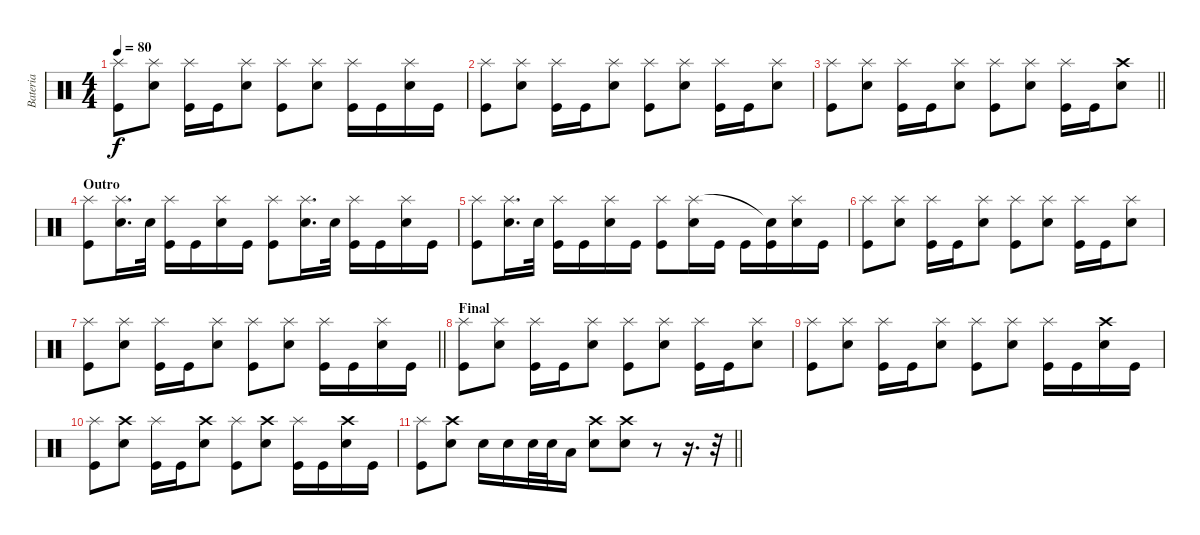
\track ("Bateria" "Bateria") {instrument percussion}
\staff {score}
\articulation defaults
\ts (4 4)
\tempo 80
\clef neutral
\ks c
("Kick (hit)" "Splash (hit)").8{dy f} ("Electric Snare (hit)" "Splash (hit)").8 ("Kick (hit)" "Splash (hit)").16 "Kick (hit)".16 ("Electric Snare (hit)" "Splash (hit)").8 ("Kick (hit)" "Splash (hit)").8 ("Electric Snare (hit)" "Splash (hit)").8 ("Kick (hit)" "Splash (hit)").16 "Kick (hit)".16 ("Electric Snare (hit)" "Splash (hit)").16 "Kick (hit)".16 |
("Kick (hit)" "Splash (hit)").8 ("Electric Snare (hit)" "Splash (hit)").8 ("Kick (hit)" "Splash (hit)").16 "Kick (hit)".16 ("Electric Snare (hit)" "Splash (hit)").8 ("Kick (hit)" "Splash (hit)").8 ("Electric Snare (hit)" "Splash (hit)").8 ("Kick (hit)" "Splash (hit)").16 "Kick (hit)".16 ("Electric Snare (hit)" "Splash (hit)").8 |
\barLineRight lightlight
("Kick (hit)" "Splash (hit)").8 ("Electric Snare (hit)" "Splash (hit)").8 ("Kick (hit)" "Splash (hit)").16 "Kick (hit)".16 ("Electric Snare (hit)" "Splash (hit)").8 ("Kick (hit)" "Splash (hit)").8 ("Electric Snare (hit)" "Splash (hit)").8 ("Kick (hit)" "Splash (hit)").16 "Kick (hit)".16 ("Electric Snare (hit)" "Crash high (hit)").8 |
\section ("" "Outro")
("Kick (hit)" "Splash (hit)").8 ("Electric Snare (hit)" "Splash (hit)").16{d} "Electric Snare (hit)".32 ("Kick (hit)" "Splash (hit)").16 "Kick (hit)".16 ("Electric Snare (hit)" "Splash (hit)").16 "Kick (hit)".16 ("Kick (hit)" "Splash (hit)").8 ("Electric Snare (hit)" "Splash (hit)").16{d} "Electric Snare (hit)".32 ("Kick (hit)" "Splash (hit)").16 "Kick (hit)".16 ("Electric Snare (hit)" "Splash (hit)").16 "Kick (hit)".16 |
("Kick (hit)" "Splash (hit)").8 ("Electric Snare (hit)" "Splash (hit)").16{d} "Electric Snare (hit)".32 ("Kick (hit)" "Splash (hit)").16 "Kick (hit)".16 ("Electric Snare (hit)" "Splash (hit)").16 "Kick (hit)".16 ("Kick (hit)" "Splash (hit)").8 ("Electric Snare (hit)" "Splash (hit)").16 "Kick (hit)".16 "Kick (hit)".16 ("Kick (hit)" "Snare (hit)"{t}).16 ("Electric Snare (hit)" "Splash (hit)").16 "Kick (hit)".16 |
("Kick (hit)" "Splash (hit)").8 ("Electric Snare (hit)" "Splash (hit)").8 ("Kick (hit)" "Splash (hit)").16 "Kick (hit)".16 ("Electric Snare (hit)" "Splash (hit)").8 ("Kick (hit)" "Splash (hit)").8 ("Electric Snare (hit)" "Splash (hit)").8 ("Kick (hit)" "Splash (hit)").16 "Kick (hit)".16 ("Electric Snare (hit)" "Splash (hit)").8 |
\barLineRight lightlight
("Kick (hit)" "Splash (hit)").8 ("Electric Snare (hit)" "Splash (hit)").8 ("Kick (hit)" "Splash (hit)").16 "Kick (hit)".16 ("Electric Snare (hit)" "Splash (hit)").8 ("Kick (hit)" "Splash (hit)").8 ("Electric Snare (hit)" "Splash (hit)").8 ("Kick (hit)" "Splash (hit)").16 "Kick (hit)".16 ("Electric Snare (hit)" "Splash (hit)").16 "Kick (hit)".16 |
\section ("" "Final")
("Kick (hit)" "Splash (hit)").8 ("Electric Snare (hit)" "Splash (hit)").8 ("Kick (hit)" "Splash (hit)").16 "Kick (hit)".16 ("Electric Snare (hit)" "Splash (hit)").8 ("Kick (hit)" "Splash (hit)").8 ("Electric Snare (hit)" "Splash (hit)").8 ("Kick (hit)" "Splash (hit)").16 "Kick (hit)".16 ("Electric Snare (hit)" "Splash (hit)").8 |
("Kick (hit)" "Splash (hit)").8 ("Electric Snare (hit)" "Splash (hit)").8 ("Kick (hit)" "Splash (hit)").16 "Kick (hit)".16 ("Electric Snare (hit)" "Splash (hit)").8 ("Kick (hit)" "Splash (hit)").8 ("Electric Snare (hit)" "Splash (hit)").8 ("Kick (hit)" "Splash (hit)").16 "Kick (hit)".16 ("Electric Snare (hit)" "Crash high (hit)").16 "Kick (hit)".16 |
("Kick (hit)" "Splash (hit)").8 ("Electric Snare (hit)" "Crash high (hit)").8 ("Kick (hit)" "Splash (hit)").16 "Kick (hit)".16 ("Electric Snare (hit)" "Crash high (hit)").8 ("Kick (hit)" "Splash (hit)").8 ("Electric Snare (hit)" "Crash high (hit)").8 ("Kick (hit)" "Splash (hit)").16 "Kick (hit)".16 ("Electric Snare (hit)" "Crash high (hit)").16 "Kick (hit)".16 |
\barLineRight lightlight
("Kick (hit)" "Splash (hit)").8 ("Electric Snare (hit)" "Crash high (hit)").8 "Electric Snare (hit)".16 "Electric Snare (hit)".16 "Snare (hit) 2".32 "Snare (hit) 2".32 "Low Tom (hit)".16 ("Electric Snare (hit)" "Crash high (hit)").8 ("Electric Snare (hit)" "Crash high (hit)").8 r.8 r.16{d} r.32
